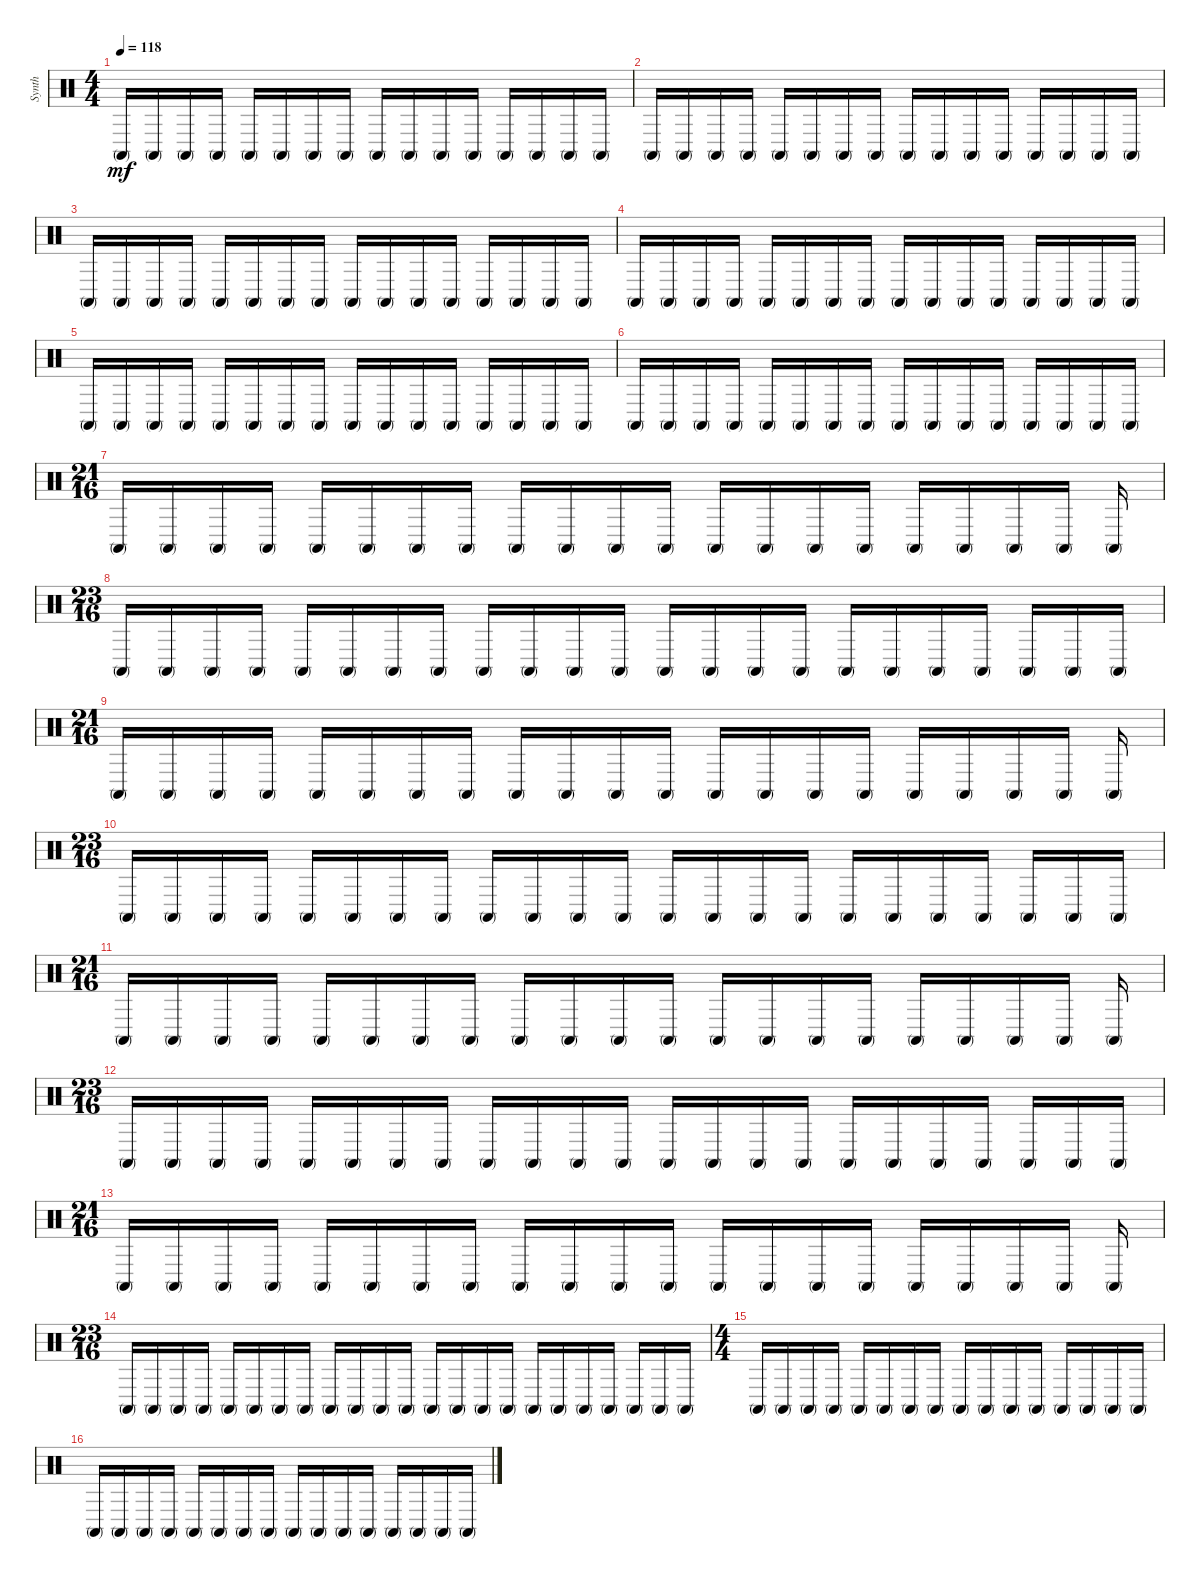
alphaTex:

\track ("Synth" "Synth") {instrument percussion}
\staff {score}
\articulation defaults
\ts (4 4)
\tempo 118
\clef neutral
\ks c "Conga high (mute)".16{dy mf} "Conga high (mute)".16 "Conga high (mute)".16 "Conga high (mute)".16 "Conga high (mute)".16 "Conga high (mute)".16 "Conga high (mute)".16 "Conga high (mute)".16 "Conga high (mute)".16 "Conga high (mute)".16 "Conga high (mute)".16 "Conga high (mute)".16 "Conga high (mute)".16 "Conga high (mute)".16 "Conga high (mute)".16 "Conga high (mute)".16
|
"Conga high (mute)".16 "Conga high (mute)".16 "Conga high (mute)".16 "Conga high (mute)".16 "Conga high (mute)".16 "Conga high (mute)".16 "Conga high (mute)".16 "Conga high (mute)".16 "Conga high (mute)".16 "Conga high (mute)".16 "Conga high (mute)".16 "Conga high (mute)".16 "Conga high (mute)".16 "Conga high (mute)".16 "Conga high (mute)".16 "Conga high (mute)".16 |
"Conga high (mute)".16 "Conga high (mute)".16 "Conga high (mute)".16 "Conga high (mute)".16 "Conga high (mute)".16 "Conga high (mute)".16 "Conga high (mute)".16 "Conga high (mute)".16 "Conga high (mute)".16 "Conga high (mute)".16 "Conga high (mute)".16 "Conga high (mute)".16 "Conga high (mute)".16 "Conga high (mute)".16 "Conga high (mute)".16 "Conga high (mute)".16 |
"Conga high (mute)".16 "Conga high (mute)".16 "Conga high (mute)".16 "Conga high (mute)".16 "Conga high (mute)".16 "Conga high (mute)".16 "Conga high (mute)".16 "Conga high (mute)".16 "Conga high (mute)".16 "Conga high (mute)".16 "Conga high (mute)".16 "Conga high (mute)".16 "Conga high (mute)".16 "Conga high (mute)".16 "Conga high (mute)".16 "Conga high (mute)".16 |
"Conga high (mute)".16 "Conga high (mute)".16 "Conga high (mute)".16 "Conga high (mute)".16 "Conga high (mute)".16 "Conga high (mute)".16 "Conga high (mute)".16 "Conga high (mute)".16 "Conga high (mute)".16 "Conga high (mute)".16 "Conga high (mute)".16 "Conga high (mute)".16 "Conga high (mute)".16 "Conga high (mute)".16 "Conga high (mute)".16 "Conga high (mute)".16 |
"Conga high (mute)".16 "Conga high (mute)".16 "Conga high (mute)".16 "Conga high (mute)".16 "Conga high (mute)".16 "Conga high (mute)".16 "Conga high (mute)".16 "Conga high (mute)".16 "Conga high (mute)".16 "Conga high (mute)".16 "Conga high (mute)".16 "Conga high (mute)".16 "Conga high (mute)".16 "Conga high (mute)".16 "Conga high (mute)".16 "Conga high (mute)".16 |
\ts (21 16)
"Conga high (mute)".16 "Conga high (mute)".16 "Conga high (mute)".16 "Conga high (mute)".16 "Conga high (mute)".16 "Conga high (mute)".16 "Conga high (mute)".16 "Conga high (mute)".16 "Conga high (mute)".16 "Conga high (mute)".16 "Conga high (mute)".16 "Conga high (mute)".16 "Conga high (mute)".16 "Conga high (mute)".16 "Conga high (mute)".16 "Conga high (mute)".16 "Conga high (mute)".16 "Conga high (mute)".16 "Conga high (mute)".16 "Conga high (mute)".16 "Conga high (mute)".16 |
\ts (23 16)
"Conga high (mute)".16 "Conga high (mute)".16 "Conga high (mute)".16 "Conga high (mute)".16 "Conga high (mute)".16 "Conga high (mute)".16 "Conga high (mute)".16 "Conga high (mute)".16 "Conga high (mute)".16 "Conga high (mute)".16 "Conga high (mute)".16 "Conga high (mute)".16 "Conga high (mute)".16 "Conga high (mute)".16 "Conga high (mute)".16 "Conga high (mute)".16 "Conga high (mute)".16 "Conga high (mute)".16 "Conga high (mute)".16 "Conga high (mute)".16 "Conga high (mute)".16 "Conga high (mute)".16 "Conga high (mute)".16 |
\ts (21 16)
"Conga high (mute)".16 "Conga high (mute)".16 "Conga high (mute)".16 "Conga high (mute)".16 "Conga high (mute)".16 "Conga high (mute)".16 "Conga high (mute)".16 "Conga high (mute)".16 "Conga high (mute)".16 "Conga high (mute)".16 "Conga high (mute)".16 "Conga high (mute)".16 "Conga high (mute)".16 "Conga high (mute)".16 "Conga high (mute)".16 "Conga high (mute)".16 "Conga high (mute)".16 "Conga high (mute)".16 "Conga high (mute)".16 "Conga high (mute)".16 "Conga high (mute)".16 |
\ts (23 16)
"Conga high (mute)".16 "Conga high (mute)".16 "Conga high (mute)".16 "Conga high (mute)".16 "Conga high (mute)".16 "Conga high (mute)".16 "Conga high (mute)".16 "Conga high (mute)".16 "Conga high (mute)".16 "Conga high (mute)".16 "Conga high (mute)".16 "Conga high (mute)".16 "Conga high (mute)".16 "Conga high (mute)".16 "Conga high (mute)".16 "Conga high (mute)".16 "Conga high (mute)".16 "Conga high (mute)".16 "Conga high (mute)".16 "Conga high (mute)".16 "Conga high (mute)".16 "Conga high (mute)".16 "Conga high (mute)".16 |
\ts (21 16)
"Conga high (mute)".16 "Conga high (mute)".16 "Conga high (mute)".16 "Conga high (mute)".16 "Conga high (mute)".16 "Conga high (mute)".16 "Conga high (mute)".16 "Conga high (mute)".16 "Conga high (mute)".16 "Conga high (mute)".16 "Conga high (mute)".16 "Conga high (mute)".16 "Conga high (mute)".16 "Conga high (mute)".16 "Conga high (mute)".16 "Conga high (mute)".16 "Conga high (mute)".16 "Conga high (mute)".16 "Conga high (mute)".16 "Conga high (mute)".16 "Conga high (mute)".16 |
\ts (23 16)
"Conga high (mute)".16 "Conga high (mute)".16 "Conga high (mute)".16 "Conga high (mute)".16 "Conga high (mute)".16 "Conga high (mute)".16 "Conga high (mute)".16 "Conga high (mute)".16 "Conga high (mute)".16 "Conga high (mute)".16 "Conga high (mute)".16 "Conga high (mute)".16 "Conga high (mute)".16 "Conga high (mute)".16 "Conga high (mute)".16 "Conga high (mute)".16 "Conga high (mute)".16 "Conga high (mute)".16 "Conga high (mute)".16 "Conga high (mute)".16 "Conga high (mute)".16 "Conga high (mute)".16 "Conga high (mute)".16 |
\ts (21 16)
"Conga high (mute)".16 "Conga high (mute)".16 "Conga high (mute)".16 "Conga high (mute)".16 "Conga high (mute)".16 "Conga high (mute)".16 "Conga high (mute)".16 "Conga high (mute)".16 "Conga high (mute)".16 "Conga high (mute)".16 "Conga high (mute)".16 "Conga high (mute)".16 "Conga high (mute)".16 "Conga high (mute)".16 "Conga high (mute)".16 "Conga high (mute)".16 "Conga high (mute)".16 "Conga high (mute)".16 "Conga high (mute)".16 "Conga high (mute)".16 "Conga high (mute)".16 |
\ts (23 16)
"Conga high (mute)".16 "Conga high (mute)".16 "Conga high (mute)".16 "Conga high (mute)".16 "Conga high (mute)".16 "Conga high (mute)".16 "Conga high (mute)".16 "Conga high (mute)".16 "Conga high (mute)".16 "Conga high (mute)".16 "Conga high (mute)".16 "Conga high (mute)".16 "Conga high (mute)".16 "Conga high (mute)".16 "Conga high (mute)".16 "Conga high (mute)".16 "Conga high (mute)".16 "Conga high (mute)".16 "Conga high (mute)".16 "Conga high (mute)".16 "Conga high (mute)".16 "Conga high (mute)".16 "Conga high (mute)".16 |
\ts (4 4)
"Conga high (mute)".16 "Conga high (mute)".16 "Conga high (mute)".16 "Conga high (mute)".16 "Conga high (mute)".16 "Conga high (mute)".16 "Conga high (mute)".16 "Conga high (mute)".16 "Conga high (mute)".16 "Conga high (mute)".16 "Conga high (mute)".16 "Conga high (mute)".16 "Conga high (mute)".16 "Conga high (mute)".16 "Conga high (mute)".16 "Conga high (mute)".16 |
"Conga high (mute)".16 "Conga high (mute)".16 "Conga high (mute)".16 "Conga high (mute)".16 "Conga high (mute)".16 "Conga high (mute)".16 "Conga high (mute)".16 "Conga high (mute)".16 "Conga high (mute)".16 "Conga high (mute)".16 "Conga high (mute)".16 "Conga high (mute)".16 "Conga high (mute)".16 "Conga high (mute)".16 "Conga high (mute)".16 "Conga high (mute)".16
